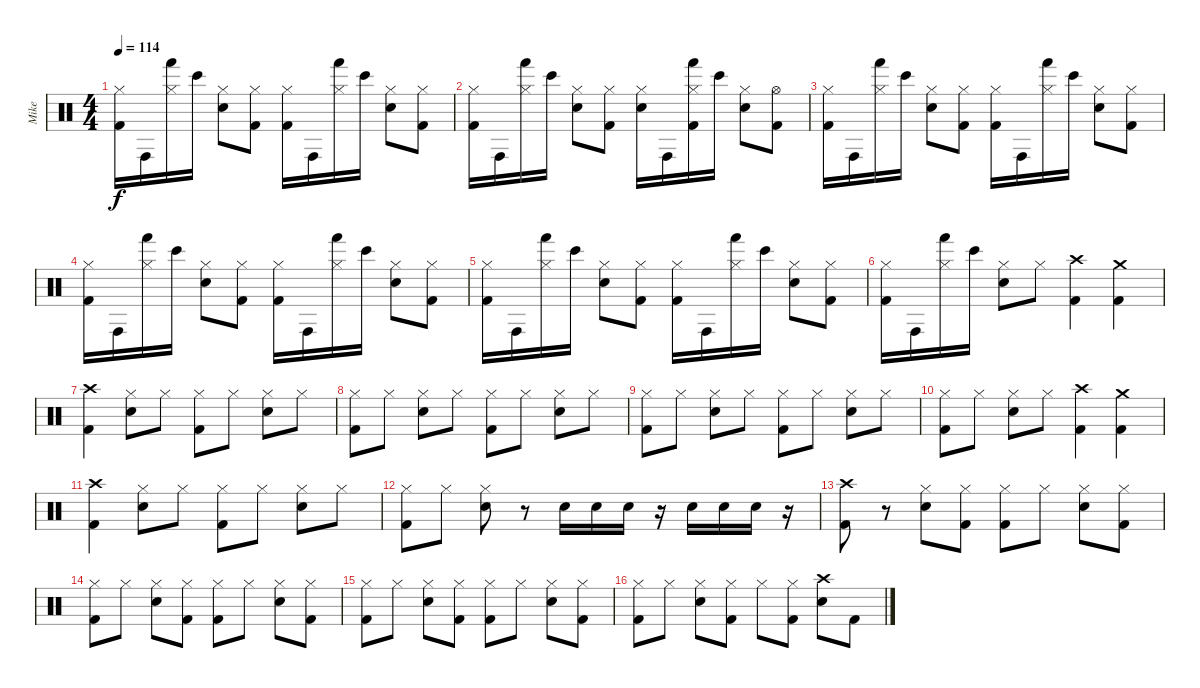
\track ("Mike" "Mike") {instrument percussion}
\staff {score}
\articulation defaults
\ts (4 4)
\tempo 114
\clef neutral
\ks c
("Hi-Hat (closed)" "Kick (hit) 2").16{dy f} "Conga high (hit)".16 ("Hi-Hat (closed)" "Hand (hit)").16 "Bongo High (hit)".16 ("Hi-Hat (closed)" "Electric Snare (hit)").8 ("Hi-Hat (closed)" "Kick (hit) 2").8 ("Hi-Hat (closed)" "Kick (hit) 2").16 "Conga high (hit)".16 ("Hi-Hat (closed)" "Hand (hit)").16 "Bongo High (hit)".16 ("Hi-Hat (closed)" "Electric Snare (hit)").8 ("Hi-Hat (closed)" "Kick (hit) 2").8 |
("Hi-Hat (closed)" "Kick (hit) 2").16 "Conga high (hit)".16 ("Hi-Hat (closed)" "Hand (hit)").16 "Bongo High (hit)".16 ("Hi-Hat (closed)" "Electric Snare (hit)").8 ("Hi-Hat (closed)" "Kick (hit) 2").8 ("Hi-Hat (closed)" "Electric Snare (hit)").16 "Conga high (hit)".16 ("Hi-Hat (closed)" "Hand (hit)" "Kick (hit) 2").16 "Bongo High (hit)".16 ("Hi-Hat (closed)" "Electric Snare (hit)").8 ("Hi-Hat (open)" "Kick (hit) 2").8 |
("Hi-Hat (closed)" "Kick (hit) 2").16 "Conga high (hit)".16 ("Hi-Hat (closed)" "Hand (hit)").16 "Bongo High (hit)".16 ("Hi-Hat (closed)" "Electric Snare (hit)").8 ("Hi-Hat (closed)" "Kick (hit) 2").8 ("Hi-Hat (closed)" "Kick (hit) 2").16 "Conga high (hit)".16 ("Hi-Hat (closed)" "Hand (hit)").16 "Bongo High (hit)".16 ("Hi-Hat (closed)" "Electric Snare (hit)").8 ("Hi-Hat (closed)" "Kick (hit) 2").8 |
("Hi-Hat (closed)" "Kick (hit) 2").16 "Conga high (hit)".16 ("Hi-Hat (closed)" "Hand (hit)").16 "Bongo High (hit)".16 ("Hi-Hat (closed)" "Electric Snare (hit)").8 ("Hi-Hat (closed)" "Kick (hit) 2").8 ("Hi-Hat (closed)" "Kick (hit) 2").16 "Conga high (hit)".16 ("Hi-Hat (closed)" "Hand (hit)").16 "Bongo High (hit)".16 ("Hi-Hat (closed)" "Electric Snare (hit)").8 ("Hi-Hat (closed)" "Kick (hit) 2").8 |
("Hi-Hat (closed)" "Kick (hit) 2").16 "Conga high (hit)".16 ("Hi-Hat (closed)" "Hand (hit)").16 "Bongo High (hit)".16 ("Hi-Hat (closed)" "Electric Snare (hit)").8 ("Hi-Hat (closed)" "Kick (hit) 2").8 ("Hi-Hat (closed)" "Kick (hit) 2").16 "Conga high (hit)".16 ("Hi-Hat (closed)" "Hand (hit)").16 "Bongo High (hit)".16 ("Hi-Hat (closed)" "Electric Snare (hit)").8 ("Hi-Hat (closed)" "Kick (hit) 2").8 |
("Hi-Hat (closed)" "Kick (hit) 2").16 "Conga high (hit)".16 ("Hi-Hat (closed)" "Hand (hit)").16 "Bongo High (hit)".16 ("Hi-Hat (closed)" "Electric Snare (hit)").8 "Hi-Hat (closed)".8 ("Crash high (hit)" "Kick (hit) 2").4 ("Crash medium (hit)" "Kick (hit) 2").4 |
("Crash high (hit)" "Kick (hit) 2").4 ("Hi-Hat (closed)" "Electric Snare (hit)").8 "Hi-Hat (closed)".8 ("Hi-Hat (closed)" "Kick (hit) 2").8 "Hi-Hat (closed)".8 ("Hi-Hat (closed)" "Electric Snare (hit)").8 "Hi-Hat (closed)".8 |
("Hi-Hat (closed)" "Kick (hit) 2").8 "Hi-Hat (closed)".8 ("Hi-Hat (closed)" "Electric Snare (hit)").8 "Hi-Hat (closed)".8 ("Hi-Hat (closed)" "Kick (hit) 2").8 "Hi-Hat (closed)".8 ("Hi-Hat (closed)" "Electric Snare (hit)").8 "Hi-Hat (closed)".8 |
("Hi-Hat (closed)" "Kick (hit) 2").8 "Hi-Hat (closed)".8 ("Hi-Hat (closed)" "Electric Snare (hit)").8 "Hi-Hat (closed)".8 ("Hi-Hat (closed)" "Kick (hit) 2").8 "Hi-Hat (closed)".8 ("Hi-Hat (closed)" "Electric Snare (hit)").8 "Hi-Hat (closed)".8 |
("Hi-Hat (closed)" "Kick (hit) 2").8 "Hi-Hat (closed)".8 ("Hi-Hat (closed)" "Electric Snare (hit)").8 "Hi-Hat (closed)".8 ("Crash high (hit)" "Kick (hit) 2").4 ("Crash medium (hit)" "Kick (hit) 2").4 |
("Crash high (hit)" "Kick (hit) 2").4 ("Hi-Hat (closed)" "Electric Snare (hit)").8 "Hi-Hat (closed)".8 ("Hi-Hat (closed)" "Kick (hit) 2").8 "Hi-Hat (closed)".8 ("Hi-Hat (closed)" "Electric Snare (hit)").8 "Hi-Hat (closed)".8 |
("Hi-Hat (closed)" "Kick (hit) 2").8 "Hi-Hat (closed)".8 ("Hi-Hat (closed)" "Electric Snare (hit)").8 r.8 "Electric Snare (hit)".16 "Electric Snare (hit)".16 "Electric Snare (hit)".16 r.16 "Electric Snare (hit)".16 "Electric Snare (hit)".16 "Electric Snare (hit)".16 r.16 |
("Crash high (hit)" "Kick (hit) 2").8 r.8 ("Hi-Hat (closed)" "Electric Snare (hit)").8 ("Hi-Hat (closed)" "Kick (hit) 2").8 ("Hi-Hat (closed)" "Kick (hit) 2").8 "Hi-Hat (closed)".8 ("Hi-Hat (closed)" "Electric Snare (hit)").8 ("Hi-Hat (closed)" "Kick (hit) 2").8 |
("Hi-Hat (closed)" "Kick (hit) 2").8 "Hi-Hat (closed)".8 ("Hi-Hat (closed)" "Electric Snare (hit)").8 ("Hi-Hat (closed)" "Kick (hit) 2").8 ("Hi-Hat (closed)" "Kick (hit) 2").8 "Hi-Hat (closed)".8 ("Hi-Hat (closed)" "Electric Snare (hit)").8 ("Hi-Hat (closed)" "Kick (hit) 2").8 |
("Hi-Hat (closed)" "Kick (hit) 2").8 "Hi-Hat (closed)".8 ("Hi-Hat (closed)" "Electric Snare (hit)").8 ("Hi-Hat (closed)" "Kick (hit) 2").8 ("Hi-Hat (closed)" "Kick (hit) 2").8 "Hi-Hat (closed)".8 ("Hi-Hat (closed)" "Electric Snare (hit)").8 ("Hi-Hat (closed)" "Kick (hit) 2").8 |
("Hi-Hat (closed)" "Kick (hit) 2").8 "Hi-Hat (closed)".8 ("Hi-Hat (closed)" "Electric Snare (hit)").8 ("Hi-Hat (closed)" "Kick (hit) 2").8 "Hi-Hat (closed)".8 ("Hi-Hat (closed)" "Kick (hit) 2").8 ("Crash high (hit)" "Electric Snare (hit)").8 "Kick (hit) 2".8
